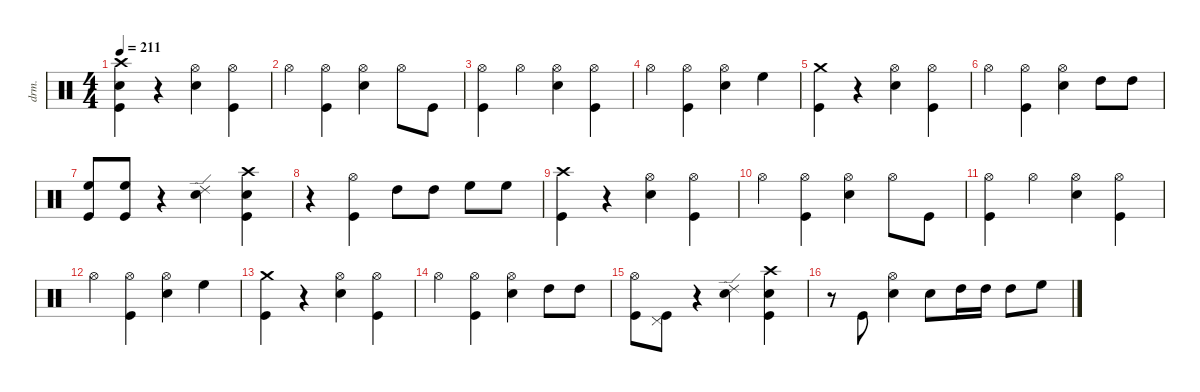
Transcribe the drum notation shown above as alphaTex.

\defaultSystemsLayout 4
\hideDynamics
\bracketExtendMode nobrackets
\otherSystemsTrackNameOrientation horizontal
\track ("Drums" "drm.") {instrument percussion}
\staff {score}
\articulation defaults
\ts (4 4)
\tempo 211
\clef neutral
\ks c
("Kick (hit)" "Snare (hit) 2" "Crash high (hit)"{acc #}).4{dy fff beam Down} r.4{beam Down} ("Snare (hit) 2" "Hi-Hat (open)"{acc #}).4{dy ff beam Down} ("Kick (hit)" "Hi-Hat (open)"{acc #}).4{beam Down} |
"Hi-Hat (open)"{acc #}.4{dy fff beam Down} ("Kick (hit)" "Hi-Hat (open)"{acc #}).4{dy ff beam Down} ("Snare (hit) 2" "Hi-Hat (open)"{acc #}).4{beam Down} "Hi-Hat (open)"{acc #}.8{dy mf beam Down} "Kick (hit)".8{beam Down} |
("Kick (hit)" "Hi-Hat (open)"{acc #}).4{dy fff beam Down} "Hi-Hat (open)"{acc #}.4{dy mf beam Down} ("Snare (hit) 2" "Hi-Hat (open)"{acc #}).4{dy ff beam Down} ("Kick (hit)" "Hi-Hat (open)"{acc #}).4{beam Down} |
"Hi-Hat (open)"{acc #}.4{dy fff beam Down} ("Kick (hit)" "Hi-Hat (open)"{acc #}).4{dy ff beam Down} ("Snare (hit) 2" "Hi-Hat (open)"{acc #}).4{beam Down} "High Floor Tom (hit)".4{beam Down} |
("Kick (hit)" "Crash medium (hit)").4{dy fff beam Down} r.4{beam Down} ("Snare (hit) 2" "Hi-Hat (open)"{acc #}).4{dy ff beam Down} ("Kick (hit)" "Hi-Hat (open)"{acc #}).4{beam Down} |
"Hi-Hat (open)"{acc #}.4{dy fff beam Down} ("Kick (hit)" "Hi-Hat (open)"{acc #}).4{dy ff beam Down} ("Snare (hit) 2" "Hi-Hat (open)"{acc #}).4{beam Down} "High Tom (hit)".8{beam Down} "High Tom (hit)".8{dy mf beam Down} |
("Kick (hit)" "High Floor Tom (hit)").8{dy ff beam Up} ("Kick (hit)" "High Floor Tom (hit)").8{dy fff beam Up} r.4{beam Up} ("Snare (hit) 2" "Ride (edge) 2").4{dy f beam Down} ("Kick (hit)" "Snare (hit) 2" "Crash high (hit)"{acc #}).4{dy ff beam Down} |
r.4{beam Down} ("Kick (hit)" "Hi-Hat (open)"{acc #}).4{dy fff beam Down} "High Tom (hit)".8{dy ff beam Down} "High Tom (hit)".8{dy mf beam Down} "High Floor Tom (hit)".8{dy f beam Down} "High Floor Tom (hit)".8{dy mf beam Down} |
("Kick (hit)" "Crash high (hit)"{acc #}).4{dy fff beam Down} r.4{beam Down} ("Snare (hit) 2" "Hi-Hat (open)"{acc #}).4{dy ff beam Down} ("Kick (hit)" "Hi-Hat (open)"{acc #}).4{beam Down} |
"Hi-Hat (open)"{acc #}.4{dy fff beam Down} ("Kick (hit)" "Hi-Hat (open)"{acc #}).4{dy ff beam Down} ("Snare (hit) 2" "Hi-Hat (open)"{acc #}).4{beam Down} "Hi-Hat (open)"{acc #}.8{dy mf beam Down} "Kick (hit)".8{beam Down} |
("Kick (hit)" "Hi-Hat (open)"{acc #}).4{dy fff beam Down} "Hi-Hat (open)"{acc #}.4{dy mf beam Down} ("Snare (hit) 2" "Hi-Hat (open)"{acc #}).4{dy ff beam Down} ("Kick (hit)" "Hi-Hat (open)"{acc #}).4{beam Down} |
"Hi-Hat (open)"{acc #}.4{dy fff beam Down} ("Kick (hit)" "Hi-Hat (open)"{acc #}).4{dy ff beam Down} ("Snare (hit) 2" "Hi-Hat (open)"{acc #}).4{beam Down} "High Floor Tom (hit)".4{beam Down} |
("Kick (hit)" "Crash medium (hit)").4{dy fff beam Down} r.4{beam Down} ("Snare (hit) 2" "Hi-Hat (open)"{acc #}).4{dy ff beam Down} ("Kick (hit)" "Hi-Hat (open)"{acc #}).4{beam Down} |
"Hi-Hat (open)"{acc #}.4{dy fff beam Down} ("Kick (hit)" "Hi-Hat (open)"{acc #}).4{dy ff beam Down} ("Snare (hit) 2" "Hi-Hat (open)"{acc #}).4{beam Down} "High Tom (hit)".8{beam Down} "High Tom (hit)".8{dy mf beam Down} |
("Kick (hit)" "Hi-Hat (open)"{acc #}).8{dy ff beam Down} ("Kick (hit)" "Pedal Hi-Hat (hit)"{acc #}).8{dy fff beam Down} r.4{beam Down} ("Snare (hit) 2" "Ride (edge) 2").4{dy f beam Down} ("Kick (hit)" "Snare (hit) 2" "Crash high (hit)"{acc #}).4{dy ff beam Down} |
r.8{beam Down} "Kick (hit)".8{dy mf beam Up} ("Snare (hit) 2" "Hi-Hat (open)"{acc #}).4{dy fff beam Down} "Snare (hit) 2".8{beam Down} "High Tom (hit)".16{dy ff beam Down} "High Tom (hit)".16{dy pp beam Down} "High Tom (hit)".8{dy f beam Down} "High Floor Tom (hit)".8{dy mp beam Down}
